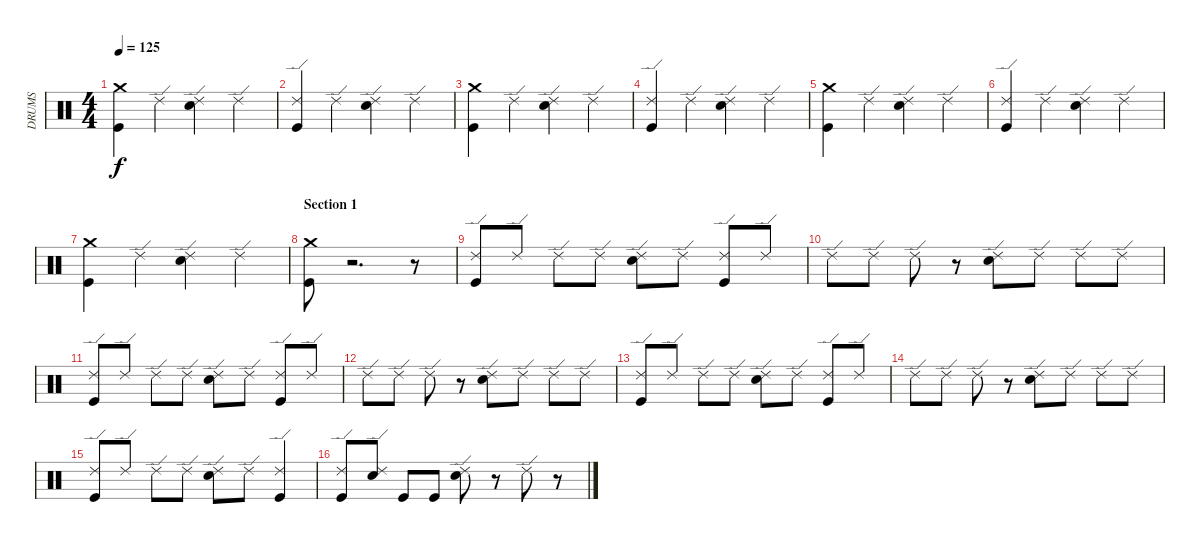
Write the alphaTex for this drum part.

\track ("DRUMS" "DRUMS") {instrument percussion}
\staff {score}
\articulation defaults
\ts (4 4)
\tempo 125
\clef neutral
\ks c
("Crash medium (hit)" "Kick (hit)").4{dy f} "Ride (edge) 2".4 ("Snare (hit) 2" "Ride (edge) 2").4 "Ride (edge) 2".4 |
("Ride (edge) 2" "Kick (hit)").4 "Ride (edge) 2".4 ("Ride (edge) 2" "Snare (hit) 2").4 "Ride (edge) 2".4 |
("Crash medium (hit)" "Kick (hit)").4 "Ride (edge) 2".4 ("Snare (hit) 2" "Ride (edge) 2").4 "Ride (edge) 2".4 |
("Ride (edge) 2" "Kick (hit)").4 "Ride (edge) 2".4 ("Ride (edge) 2" "Snare (hit) 2").4 "Ride (edge) 2".4 |
("Crash medium (hit)" "Kick (hit)").4 "Ride (edge) 2".4 ("Snare (hit) 2" "Ride (edge) 2").4 "Ride (edge) 2".4 |
("Ride (edge) 2" "Kick (hit)").4 "Ride (edge) 2".4 ("Ride (edge) 2" "Snare (hit) 2").4 "Ride (edge) 2".4 |
("Crash medium (hit)" "Kick (hit)").4 "Ride (edge) 2".4 ("Ride (edge) 2" "Snare (hit) 2").4 "Ride (edge) 2".4 |
\section ("" "Section 1")
("Crash medium (hit)" "Kick (hit)").8 r.2{d} r.8 |
("Ride (edge) 2" "Kick (hit)").8 "Ride (edge) 2".8 "Ride (edge) 2".8 "Ride (edge) 2".8 ("Ride (edge) 2" "Snare (hit) 2").8 "Ride (edge) 2".8 ("Ride (edge) 2" "Kick (hit)").8 "Ride (edge) 2".8 |
"Ride (edge) 2".8 "Ride (edge) 2".8 "Ride (edge) 2".8 r.8 ("Snare (hit) 2" "Ride (edge) 2").8 "Ride (edge) 2".8 "Ride (edge) 2".8 "Ride (edge) 2".8 |
("Ride (edge) 2" "Kick (hit)").8 "Ride (edge) 2".8 "Ride (edge) 2".8 "Ride (edge) 2".8 ("Ride (edge) 2" "Snare (hit) 2").8 "Ride (edge) 2".8 ("Ride (edge) 2" "Kick (hit)").8 "Ride (edge) 2".8 |
"Ride (edge) 2".8 "Ride (edge) 2".8 "Ride (edge) 2".8 r.8 ("Snare (hit) 2" "Ride (edge) 2").8 "Ride (edge) 2".8 "Ride (edge) 2".8 "Ride (edge) 2".8 |
("Ride (edge) 2" "Kick (hit)").8 "Ride (edge) 2".8 "Ride (edge) 2".8 "Ride (edge) 2".8 ("Ride (edge) 2" "Snare (hit) 2").8 "Ride (edge) 2".8 ("Ride (edge) 2" "Kick (hit)").8 "Ride (edge) 2".8 |
"Ride (edge) 2".8 "Ride (edge) 2".8 "Ride (edge) 2".8 r.8 ("Snare (hit) 2" "Ride (edge) 2").8 "Ride (edge) 2".8 "Ride (edge) 2".8 "Ride (edge) 2".8 |
("Ride (edge) 2" "Kick (hit)").8 "Ride (edge) 2".8 "Ride (edge) 2".8 "Ride (edge) 2".8 ("Ride (edge) 2" "Snare (hit) 2").8 "Ride (edge) 2".8 ("Ride (edge) 2" "Kick (hit)").4 |
("Ride (edge) 2" "Kick (hit)").8 ("Ride (edge) 2" "Snare (hit) 2").8 "Kick (hit)".8 "Kick (hit)".8 ("Ride (edge) 2" "Snare (hit) 2").8 r.8 "Ride (edge) 2".8 r.8
